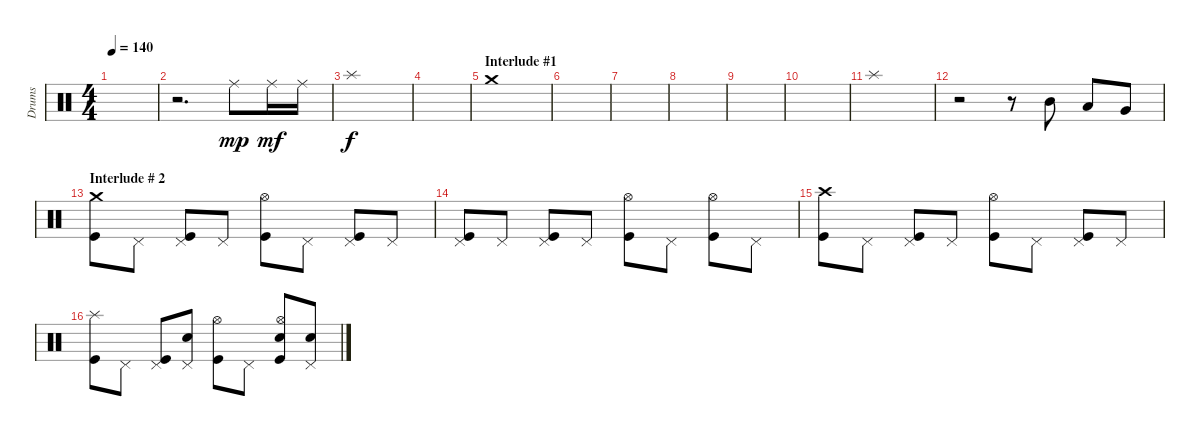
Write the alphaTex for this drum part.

\track ("Drums" "Drums") {instrument percussion}
\staff {score}
\articulation defaults
\ts (4 4)
\tempo 140
\clef neutral
\ks c
|
r.2{d} "Ride (middle)".8{dy mp} "Ride (middle)".16{dy mf} "Ride (middle)".16 |
"Splash (hit)".1{dy f} |
|
\section ("" "Interlude #1")
"Crash medium (hit)".1 |
|
|
|
|
|
"Splash (hit)".1 |
r.2 r.8 "Mid Tom (hit)".8 "Low Tom (hit)".8 "Very Low Tom (hit)".8 |
\section ("" "Interlude # 2")
("Crash medium (hit)" "Kick (hit)").8 "Pedal Hi-Hat (hit)".8 ("Pedal Hi-Hat (hit)" "Kick (hit)").8 "Pedal Hi-Hat (hit)".8 ("Hi-Hat (open)" "Kick (hit)").8 "Pedal Hi-Hat (hit)".8 ("Pedal Hi-Hat (hit)" "Kick (hit)").8 "Pedal Hi-Hat (hit)".8 |
("Pedal Hi-Hat (hit)" "Kick (hit)").8 "Pedal Hi-Hat (hit)".8 ("Pedal Hi-Hat (hit)" "Kick (hit)").8 "Pedal Hi-Hat (hit)".8 ("Hi-Hat (open)" "Kick (hit)").8 "Pedal Hi-Hat (hit)".8 ("Hi-Hat (open)" "Kick (hit)").8 "Pedal Hi-Hat (hit)".8 |
("Crash high (hit)" "Kick (hit)").8 "Pedal Hi-Hat (hit)".8 ("Pedal Hi-Hat (hit)" "Kick (hit)").8 "Pedal Hi-Hat (hit)".8 ("Hi-Hat (open)" "Kick (hit)").8 "Pedal Hi-Hat (hit)".8 ("Pedal Hi-Hat (hit)" "Kick (hit)").8 "Pedal Hi-Hat (hit)".8 |
("Splash (hit)" "Kick (hit)").8 "Pedal Hi-Hat (hit)".8 ("Pedal Hi-Hat (hit)" "Kick (hit)").8 ("Pedal Hi-Hat (hit)" "Electric Snare (hit)").8 ("Hi-Hat (open)" "Kick (hit)").8 "Pedal Hi-Hat (hit)".8 ("Hi-Hat (open)" "Electric Snare (hit)" "Kick (hit)").8 ("Pedal Hi-Hat (hit)" "Electric Snare (hit)").8
